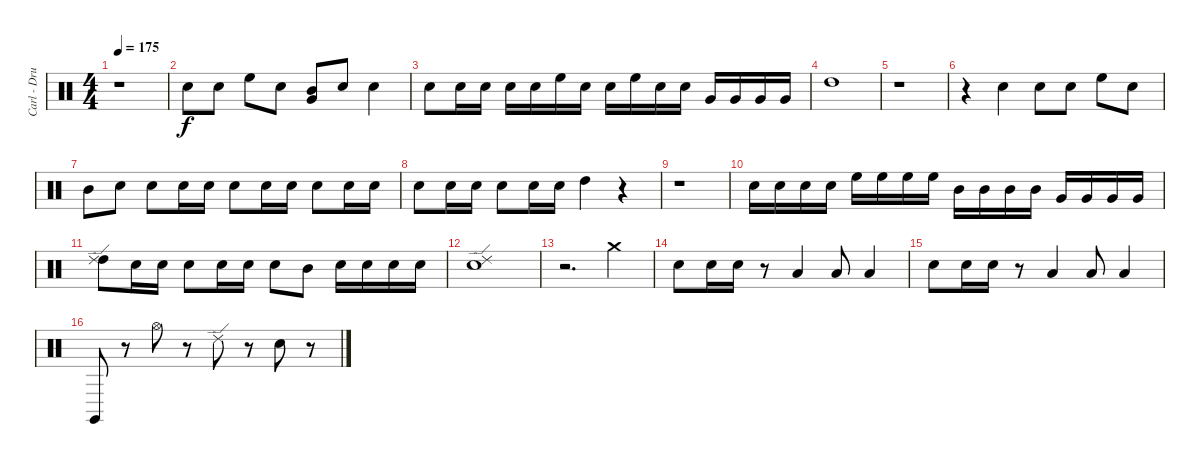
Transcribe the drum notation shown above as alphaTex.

\track ("Carl - Drums II" "Carl - Dru") {instrument percussion}
\staff {score}
\articulation defaults
\ts (4 4)
\tempo 175
\clef neutral
\ks c
r.1{dy f} |
"Electric Snare (hit)".8 "Electric Snare (hit)".8 "High Floor Tom (hit)".8 "Electric Snare (hit)".8 ("Mid Tom (hit)" "Very Low Tom (hit)").8 "Electric Snare (hit)".8 "Electric Snare (hit)".4 |
"Electric Snare (hit)".8 "Electric Snare (hit)".16 "Electric Snare (hit)".16 "Electric Snare (hit)".16 "Electric Snare (hit)".16 "High Floor Tom (hit)".16 "Electric Snare (hit)".16 "Electric Snare (hit)".16 "High Floor Tom (hit)".16 "Electric Snare (hit)".16 "Electric Snare (hit)".16 "Very Low Tom (hit)".16 "Very Low Tom (hit)".16 "Very Low Tom (hit)".16 "Very Low Tom (hit)".16 |
"High Tom (hit)".1 |
r.1 |
r.4 "Electric Snare (hit)".4 "Electric Snare (hit)".8 "Electric Snare (hit)".8 "High Floor Tom (hit)".8 "Electric Snare (hit)".8 |
"Mid Tom (hit)".8 "Electric Snare (hit)".8 "Electric Snare (hit)".8 "Electric Snare (hit)".16 "Electric Snare (hit)".16 "Electric Snare (hit)".8 "Electric Snare (hit)".16 "Electric Snare (hit)".16 "Electric Snare (hit)".8 "Electric Snare (hit)".16 "Electric Snare (hit)".16 |
"Electric Snare (hit)".8 "Electric Snare (hit)".16 "Electric Snare (hit)".16 "Electric Snare (hit)".8 "Electric Snare (hit)".16 "Electric Snare (hit)".16 "High Tom (hit)".4 r.4 |
r.1 |
"Electric Snare (hit)".16 "Electric Snare (hit)".16 "Electric Snare (hit)".16 "Electric Snare (hit)".16 "High Floor Tom (hit)".16 "High Floor Tom (hit)".16 "High Floor Tom (hit)".16 "High Floor Tom (hit)".16 "Mid Tom (hit)".16 "Mid Tom (hit)".16 "Mid Tom (hit)".16 "Mid Tom (hit)".16 "Very Low Tom (hit)".16 "Very Low Tom (hit)".16 "Very Low Tom (hit)".16 "Very Low Tom (hit)".16 |
("High Tom (hit)" "Ride (edge) 2").8 "Electric Snare (hit)".16 "Electric Snare (hit)".16 "Electric Snare (hit)".8 "Electric Snare (hit)".16 "Electric Snare (hit)".16 "Electric Snare (hit)".8 "Mid Tom (hit)".8 "Electric Snare (hit)".16 "Electric Snare (hit)".16 "Electric Snare (hit)".16 "Electric Snare (hit)".16 |
("Electric Snare (hit)" "Ride (edge) 2").1 |
r.2{d} "Crash medium (hit)".4 |
"Electric Snare (hit)".8 "Electric Snare (hit)".16 "Electric Snare (hit)".16 r.8 "Low Tom (hit)".4 "Low Tom (hit)".8 "Low Tom (hit)".4 |
"Electric Snare (hit)".8 "Electric Snare (hit)".16 "Electric Snare (hit)".16 r.8 "Low Tom (hit)".4 "Low Tom (hit)".8 "Low Tom (hit)".4 |
"Claves (hit)".8 r.8 "Hi-Hat (open)".8 r.8 "Ride (edge) 2".8 r.8 "Electric Snare (hit)".8 r.8
